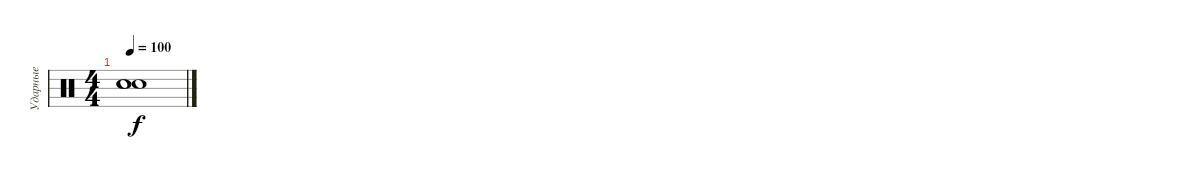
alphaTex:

\track ("Ударные" "Ударные") {instrument percussion}
\staff {score}
\articulation defaults
\ts (4 4)
\tempo 100
\clef neutral
\ks c
("Snare (hit)"{t} "Snare (hit)"{t} "Snare (hit)"{t}).1{dy f}
